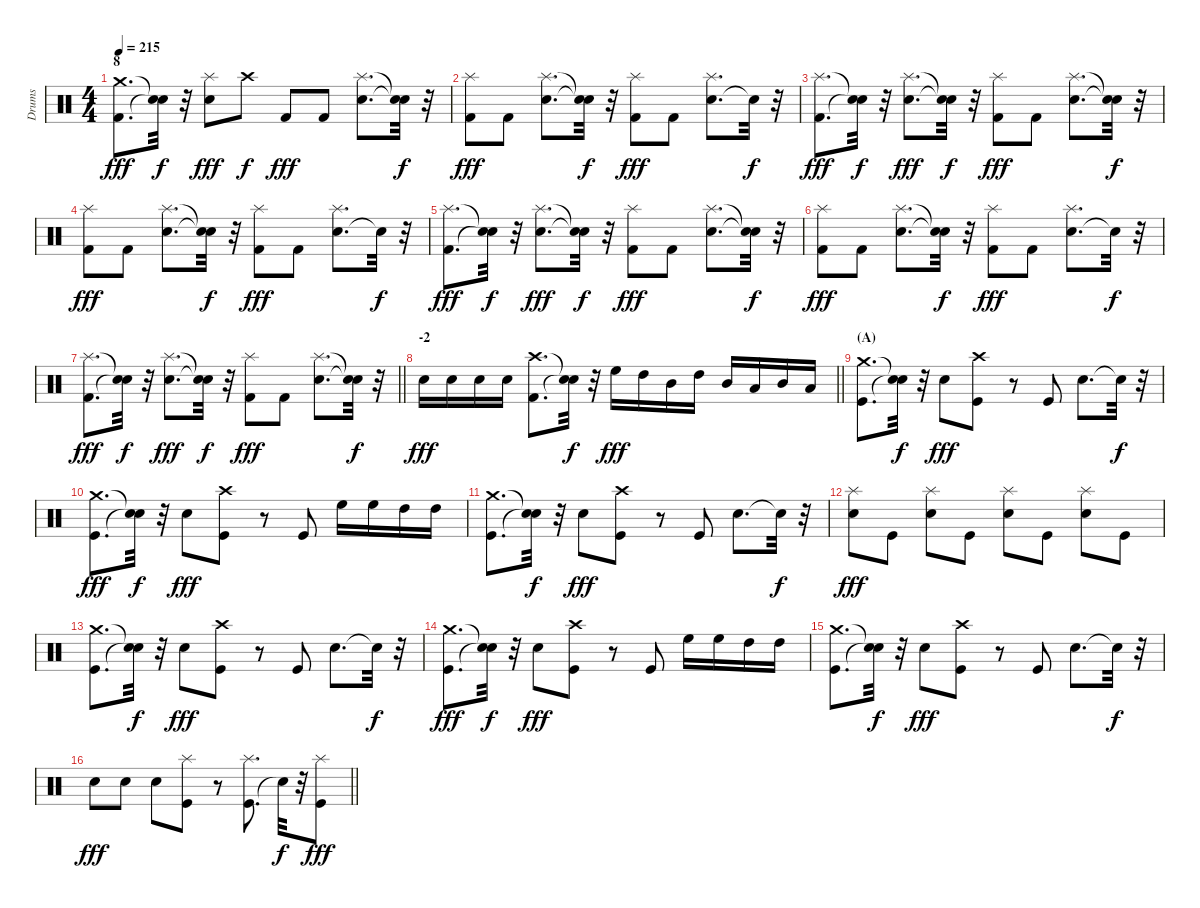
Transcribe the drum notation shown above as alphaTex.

\track ("Drums" "Drums") {instrument percussion}
\staff {score}
\articulation defaults
\ts (4 4)
\section ("" "8")
\tempo 215
\clef neutral
\ks c
("Kick (hit) 2" "Crash medium (hit)").8{d dy fff} ("Snare (hit)"{t} "Snare (hit)"{t}).32{dy f} r.32 ("Electric Snare (hit)" "Splash (hit)").8{dy fff} "Crash high (hit)".8{dy f} "Kick (hit) 2".8{dy fff} "Kick (hit) 2".8 ("Splash (hit)" "Electric Snare (hit)").8{d} ("Snare (hit)"{t} "Snare (hit)"{t}).32{dy f} r.32 |
("Kick (hit) 2" "Splash (hit)").8{dy fff} "Kick (hit) 2".8 ("Splash (hit)" "Electric Snare (hit)").8{d} ("Snare (hit)"{t} "Snare (hit)"{t}).32{dy f} r.32 ("Kick (hit) 2" "Splash (hit)").8{dy fff} "Kick (hit) 2".8 ("Electric Snare (hit)" "Splash (hit)").8{d} "Snare (hit)"{t}.32{dy f} r.32 |
("Splash (hit)" "Kick (hit) 2").8{d dy fff} ("Snare (hit)"{t} "Snare (hit)"{t}).32{dy f} r.32 ("Splash (hit)" "Electric Snare (hit)").8{d dy fff} ("Snare (hit)"{t} "Snare (hit)"{t}).32{dy f} r.32 ("Splash (hit)" "Kick (hit) 2").8{dy fff} "Kick (hit) 2".8 ("Electric Snare (hit)" "Splash (hit)").8{d} ("Snare (hit)"{t} "Snare (hit)"{t}).32{dy f} r.32 |
("Splash (hit)" "Kick (hit) 2").8{dy fff} "Kick (hit) 2".8 ("Electric Snare (hit)" "Splash (hit)").8{d} ("Snare (hit)"{t} "Snare (hit)"{t}).32{dy f} r.32 ("Splash (hit)" "Kick (hit) 2").8{dy fff} "Kick (hit) 2".8 ("Electric Snare (hit)" "Splash (hit)").8{d} "Snare (hit)"{t}.32{dy f} r.32 |
("Splash (hit)" "Kick (hit) 2").8{d dy fff} ("Snare (hit)"{t} "Snare (hit)"{t}).32{dy f} r.32 ("Splash (hit)" "Electric Snare (hit)").8{d dy fff} ("Snare (hit)"{t} "Snare (hit)"{t}).32{dy f} r.32 ("Splash (hit)" "Kick (hit) 2").8{dy fff} "Kick (hit) 2".8 ("Splash (hit)" "Electric Snare (hit)").8{d} ("Snare (hit)"{t} "Snare (hit)"{t}).32{dy f} r.32 |
("Kick (hit) 2" "Splash (hit)").8{dy fff} "Kick (hit) 2".8 ("Electric Snare (hit)" "Splash (hit)").8{d} ("Snare (hit)"{t} "Snare (hit)"{t}).32{dy f} r.32 ("Kick (hit) 2" "Splash (hit)").8{dy fff} "Kick (hit) 2".8 ("Electric Snare (hit)" "Splash (hit)").8{d} "Snare (hit)"{t}.32{dy f} r.32 |
\barLineRight lightlight
("Splash (hit)" "Kick (hit) 2").8{d dy fff} ("Snare (hit)"{t} "Snare (hit)"{t}).32{dy f} r.32 ("Splash (hit)" "Electric Snare (hit)").8{d dy fff} ("Snare (hit)"{t} "Snare (hit)"{t}).32{dy f} r.32 ("Splash (hit)" "Kick (hit) 2").8{dy fff} "Kick (hit) 2".8 ("Splash (hit)" "Electric Snare (hit)").8{d} ("Snare (hit)"{t} "Snare (hit)"{t}).32{dy f} r.32 |
\section ("" "-2")
\barLineRight lightlight "Electric Snare (hit)".16{dy fff} "Electric Snare (hit)".16 "Electric Snare (hit)".16 "Electric Snare (hit)".16
("Crash high (hit)" "Kick (hit) 2").8{d} ("Snare (hit)"{t} "Snare (hit)"{t}).32{dy f} r.32 "High Floor Tom (hit)".16{dy fff} "High Tom (hit)".16 "Mid Tom (hit)".16 "High Tom (hit)".16 "Mid Tom (hit)".16 "Low Tom (hit)".16 "Mid Tom (hit)".16 "Low Tom (hit)".16 |
\section ("" "(A)")
("Crash medium (hit)" "Kick (hit)").8{d} ("Snare (hit)"{t} "Snare (hit)"{t}).32{dy f} r.32 "Electric Snare (hit)".8{dy fff} ("Crash high (hit)" "Kick (hit)").8 r.8 "Kick (hit)".8 "Electric Snare (hit)".8{d} "Snare (hit)"{t}.32{dy f} r.32 |
("Kick (hit)" "Crash medium (hit)").8{d dy fff} ("Snare (hit)"{t} "Snare (hit)"{t}).32{dy f} r.32 "Electric Snare (hit)".8{dy fff} ("Crash high (hit)" "Kick (hit)").8 r.8 "Kick (hit)".8 "High Floor Tom (hit)".16 "High Floor Tom (hit)".16 "High Tom (hit)".16 "High Tom (hit)".16 |
("Kick (hit)" "Crash medium (hit)").8{d} ("Snare (hit)"{t} "Snare (hit)"{t}).32{dy f} r.32 "Electric Snare (hit)".8{dy fff} ("Crash high (hit)" "Kick (hit)").8 r.8 "Kick (hit)".8 "Electric Snare (hit)".8{d} "Snare (hit)"{t}.32{dy f} r.32 |
("Electric Snare (hit)" "Splash (hit)").8{dy fff} "Kick (hit)".8 ("Electric Snare (hit)" "Splash (hit)").8 "Kick (hit)".8 ("Splash (hit)" "Electric Snare (hit)").8 "Kick (hit)".8 ("Electric Snare (hit)" "Splash (hit)").8 "Kick (hit)".8 |
("Kick (hit)" "Crash medium (hit)").8{d} ("Snare (hit)"{t} "Snare (hit)"{t}).32{dy f} r.32 "Electric Snare (hit)".8{dy fff} ("Crash high (hit)" "Kick (hit)").8 r.8 "Kick (hit)".8 "Electric Snare (hit)".8{d} "Snare (hit)"{t}.32{dy f} r.32 |
("Kick (hit)" "Crash medium (hit)").8{d dy fff} ("Snare (hit)"{t} "Snare (hit)"{t}).32{dy f} r.32 "Electric Snare (hit)".8{dy fff} ("Crash high (hit)" "Kick (hit)").8 r.8 "Kick (hit)".8 "High Floor Tom (hit)".16 "High Floor Tom (hit)".16 "High Tom (hit)".16 "High Tom (hit)".16 |
("Kick (hit)" "Crash medium (hit)").8{d} ("Snare (hit)"{t} "Snare (hit)"{t}).32{dy f} r.32 "Electric Snare (hit)".8{dy fff} ("Crash high (hit)" "Kick (hit)").8 r.8 "Kick (hit)".8 "Electric Snare (hit)".8{d} "Snare (hit)"{t}.32{dy f} r.32 |
\barLineRight lightlight "Snare (hit) 2".8{dy fff} "Snare (hit) 2".8 "Snare (hit) 2".8
("Kick (hit)" "Splash (hit)").8 r.8 ("Kick (hit)" "Splash (hit)").8{d} "Snare (hit)"{t}.32{dy f} r.32 ("Kick (hit)" "Splash (hit)").8{dy fff}
